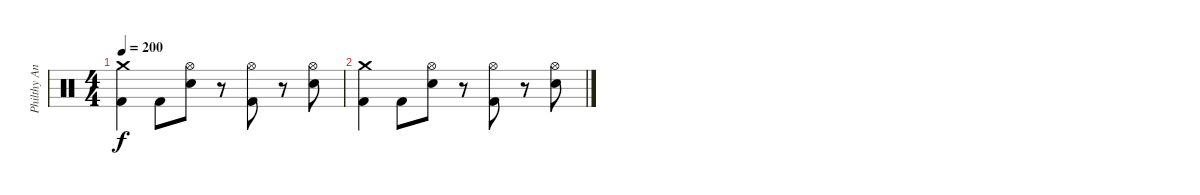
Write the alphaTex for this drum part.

\track ("Philthy Animal Taylor" "Philthy An") {instrument percussion}
\staff {score}
\articulation defaults
\ts (4 4)
\tempo 200
\clef neutral
\ks c
("Crash medium (hit)" "Kick (hit) 2").4{dy f volume 0} "Kick (hit) 2".8 ("Hi-Hat (open)" "Snare (hit) 2").8 r.8 ("Hi-Hat (open)" "Kick (hit) 2").8 r.8 ("Hi-Hat (open)" "Snare (hit) 2").8 |
("Crash medium (hit)" "Kick (hit) 2").4 "Kick (hit) 2".8 ("Hi-Hat (open)" "Snare (hit) 2").8 r.8 ("Hi-Hat (open)" "Kick (hit) 2").8 r.8 ("Hi-Hat (open)" "Snare (hit) 2").8
